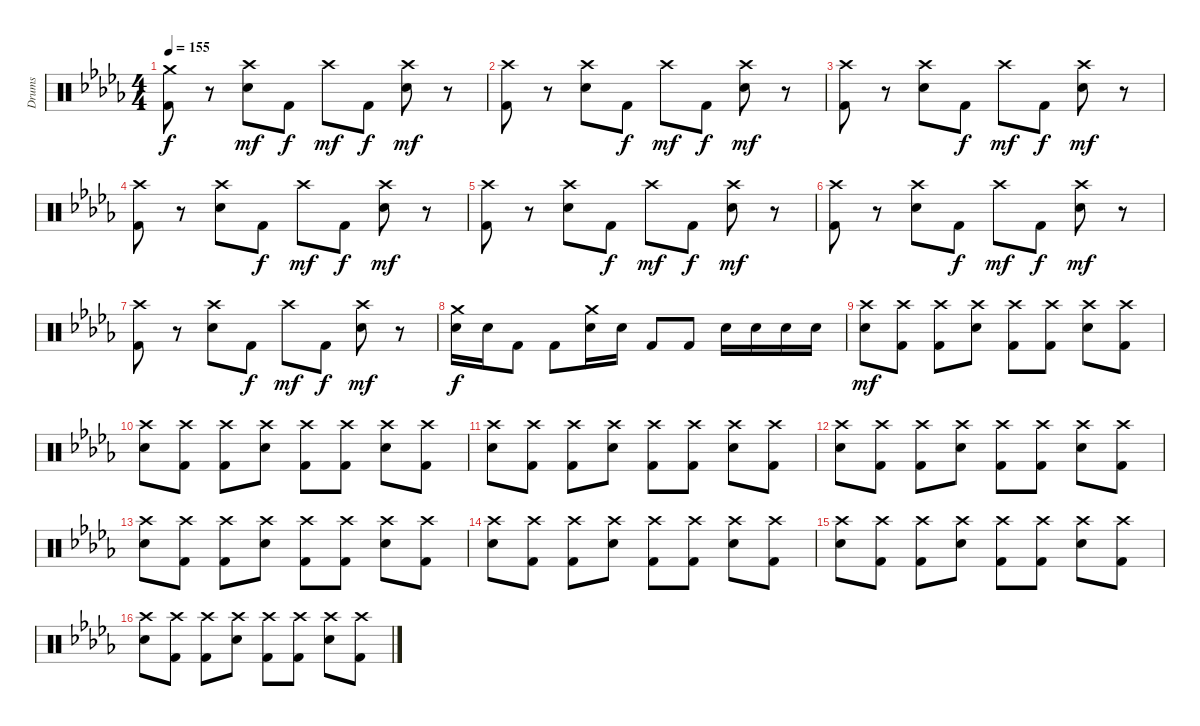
\track ("Drums" "Drums") {instrument percussion}
\staff {score}
\articulation defaults
\ts (4 4)
\tempo 155
\clef neutral
\ks db
("Crash medium (hit)" "Kick (hit) 2").8{dy f} r.8 ("Crash high (hit)" "Electric Snare (hit)").8{dy mf} "Kick (hit) 2".8{dy f} "Crash high (hit)".8{dy mf} "Kick (hit) 2".8{dy f} ("Crash high (hit)" "Electric Snare (hit)").8{dy mf} r.8 |
("Crash high (hit)" "Kick (hit) 2").8 r.8 ("Crash high (hit)" "Electric Snare (hit)").8 "Kick (hit) 2".8{dy f} "Crash high (hit)".8{dy mf} "Kick (hit) 2".8{dy f} ("Crash high (hit)" "Electric Snare (hit)").8{dy mf} r.8 |
("Crash high (hit)" "Kick (hit) 2").8 r.8 ("Crash high (hit)" "Electric Snare (hit)").8 "Kick (hit) 2".8{dy f} "Crash high (hit)".8{dy mf} "Kick (hit) 2".8{dy f} ("Crash high (hit)" "Electric Snare (hit)").8{dy mf} r.8 |
("Crash high (hit)" "Kick (hit) 2").8 r.8 ("Crash high (hit)" "Electric Snare (hit)").8 "Kick (hit) 2".8{dy f} "Crash high (hit)".8{dy mf} "Kick (hit) 2".8{dy f} ("Crash high (hit)" "Electric Snare (hit)").8{dy mf} r.8 |
("Crash high (hit)" "Kick (hit) 2").8 r.8 ("Crash high (hit)" "Electric Snare (hit)").8 "Kick (hit) 2".8{dy f} "Crash high (hit)".8{dy mf} "Kick (hit) 2".8{dy f} ("Crash high (hit)" "Electric Snare (hit)").8{dy mf} r.8 |
("Crash high (hit)" "Kick (hit) 2").8 r.8 ("Crash high (hit)" "Electric Snare (hit)").8 "Kick (hit) 2".8{dy f} "Crash high (hit)".8{dy mf} "Kick (hit) 2".8{dy f} ("Crash high (hit)" "Electric Snare (hit)").8{dy mf} r.8 |
("Crash high (hit)" "Kick (hit) 2").8 r.8 ("Crash high (hit)" "Electric Snare (hit)").8 "Kick (hit) 2".8{dy f} "Crash high (hit)".8{dy mf} "Kick (hit) 2".8{dy f} ("Crash high (hit)" "Electric Snare (hit)").8{dy mf} r.8 |
("Crash medium (hit)" "Electric Snare (hit)").16{dy f} "Electric Snare (hit)".16 "Kick (hit) 2".8 "Kick (hit) 2".8 ("Crash medium (hit)" "Electric Snare (hit)").16 "Electric Snare (hit)".16 "Kick (hit) 2".8 "Kick (hit) 2".8 "Electric Snare (hit)".16 "Electric Snare (hit)".16 "Electric Snare (hit)".16 "Electric Snare (hit)".16 |
("Crash high (hit)" "Electric Snare (hit)").8{dy mf} ("Crash high (hit)" "Kick (hit) 2").8 ("Crash high (hit)" "Kick (hit) 2").8 ("Crash high (hit)" "Electric Snare (hit)").8 ("Crash high (hit)" "Kick (hit) 2").8 ("Crash high (hit)" "Kick (hit) 2").8 ("Crash high (hit)" "Electric Snare (hit)").8 ("Crash high (hit)" "Kick (hit) 2").8 |
("Crash high (hit)" "Electric Snare (hit)").8 ("Crash high (hit)" "Kick (hit) 2").8 ("Crash high (hit)" "Kick (hit) 2").8 ("Crash high (hit)" "Electric Snare (hit)").8 ("Crash high (hit)" "Kick (hit) 2").8 ("Crash high (hit)" "Kick (hit) 2").8 ("Crash high (hit)" "Electric Snare (hit)").8 ("Crash high (hit)" "Kick (hit) 2").8 |
("Crash high (hit)" "Electric Snare (hit)").8 ("Crash high (hit)" "Kick (hit) 2").8 ("Crash high (hit)" "Kick (hit) 2").8 ("Crash high (hit)" "Electric Snare (hit)").8 ("Crash high (hit)" "Kick (hit) 2").8 ("Crash high (hit)" "Kick (hit) 2").8 ("Crash high (hit)" "Electric Snare (hit)").8 ("Crash high (hit)" "Kick (hit) 2").8 |
("Crash high (hit)" "Electric Snare (hit)").8 ("Crash high (hit)" "Kick (hit) 2").8 ("Crash high (hit)" "Kick (hit) 2").8 ("Crash high (hit)" "Electric Snare (hit)").8 ("Crash high (hit)" "Kick (hit) 2").8 ("Crash high (hit)" "Kick (hit) 2").8 ("Crash high (hit)" "Electric Snare (hit)").8 ("Crash high (hit)" "Kick (hit) 2").8 |
("Crash high (hit)" "Electric Snare (hit)").8 ("Crash high (hit)" "Kick (hit) 2").8 ("Crash high (hit)" "Kick (hit) 2").8 ("Crash high (hit)" "Electric Snare (hit)").8 ("Crash high (hit)" "Kick (hit) 2").8 ("Crash high (hit)" "Kick (hit) 2").8 ("Crash high (hit)" "Electric Snare (hit)").8 ("Crash high (hit)" "Kick (hit) 2").8 |
("Crash high (hit)" "Electric Snare (hit)").8 ("Crash high (hit)" "Kick (hit) 2").8 ("Crash high (hit)" "Kick (hit) 2").8 ("Crash high (hit)" "Electric Snare (hit)").8 ("Crash high (hit)" "Kick (hit) 2").8 ("Crash high (hit)" "Kick (hit) 2").8 ("Crash high (hit)" "Electric Snare (hit)").8 ("Crash high (hit)" "Kick (hit) 2").8 |
("Crash high (hit)" "Electric Snare (hit)").8 ("Crash high (hit)" "Kick (hit) 2").8 ("Crash high (hit)" "Kick (hit) 2").8 ("Crash high (hit)" "Electric Snare (hit)").8 ("Crash high (hit)" "Kick (hit) 2").8 ("Crash high (hit)" "Kick (hit) 2").8 ("Crash high (hit)" "Electric Snare (hit)").8 ("Crash high (hit)" "Kick (hit) 2").8 |
("Crash high (hit)" "Electric Snare (hit)").8 ("Crash high (hit)" "Kick (hit) 2").8 ("Crash high (hit)" "Kick (hit) 2").8 ("Crash high (hit)" "Electric Snare (hit)").8 ("Crash high (hit)" "Kick (hit) 2").8 ("Crash high (hit)" "Kick (hit) 2").8 ("Crash high (hit)" "Electric Snare (hit)").8 ("Crash high (hit)" "Kick (hit) 2").8
